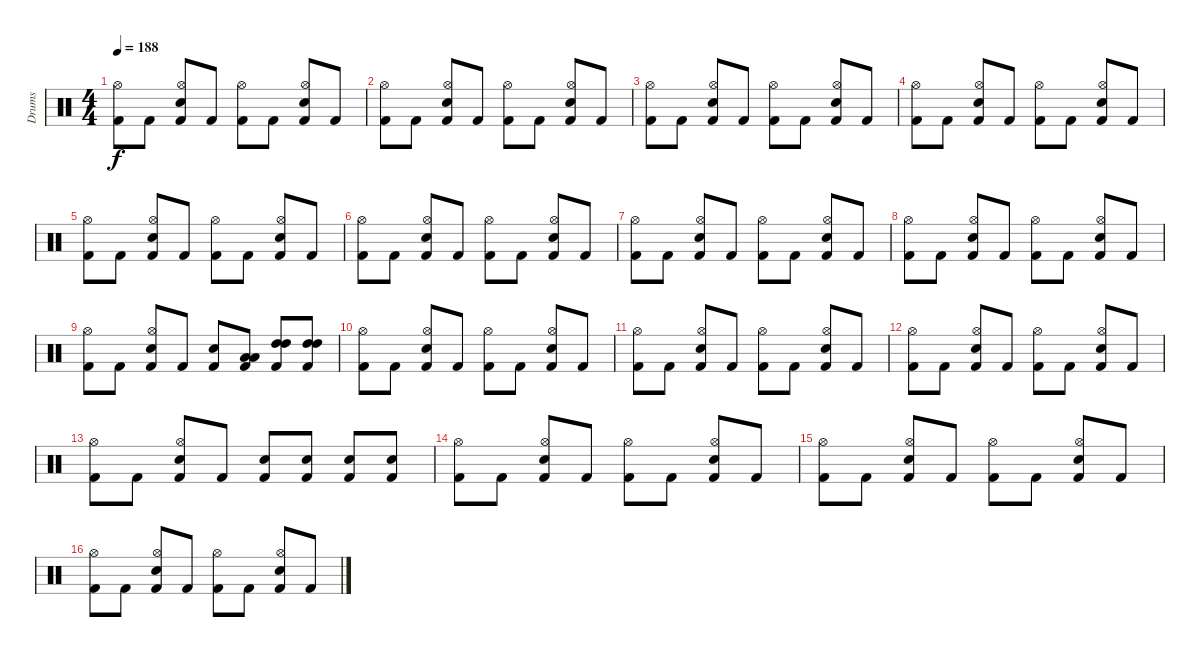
\track ("Drums" "Drums") {instrument percussion}
\staff {score}
\articulation defaults
\ts (4 4)
\tempo 188
\clef neutral
\ks c
("Kick (hit) 2" "Hi-Hat (open)").8{dy f} "Kick (hit) 2".8 ("Kick (hit) 2" "Snare (hit) 2" "Hi-Hat (open)").8 "Kick (hit) 2".8 ("Kick (hit) 2" "Hi-Hat (open)").8 "Kick (hit) 2".8 ("Kick (hit) 2" "Snare (hit) 2" "Hi-Hat (open)").8 "Kick (hit) 2".8 |
("Kick (hit) 2" "Hi-Hat (open)").8 "Kick (hit) 2".8 ("Kick (hit) 2" "Snare (hit) 2" "Hi-Hat (open)").8 "Kick (hit) 2".8 ("Kick (hit) 2" "Hi-Hat (open)").8 "Kick (hit) 2".8 ("Kick (hit) 2" "Snare (hit) 2" "Hi-Hat (open)").8 "Kick (hit) 2".8 |
("Kick (hit) 2" "Hi-Hat (open)").8 "Kick (hit) 2".8 ("Kick (hit) 2" "Snare (hit) 2" "Hi-Hat (open)").8 "Kick (hit) 2".8 ("Kick (hit) 2" "Hi-Hat (open)").8 "Kick (hit) 2".8 ("Kick (hit) 2" "Snare (hit) 2" "Hi-Hat (open)").8 "Kick (hit) 2".8 |
("Kick (hit) 2" "Hi-Hat (open)").8 "Kick (hit) 2".8 ("Kick (hit) 2" "Snare (hit) 2" "Hi-Hat (open)").8 "Kick (hit) 2".8 ("Kick (hit) 2" "Hi-Hat (open)").8 "Kick (hit) 2".8 ("Kick (hit) 2" "Snare (hit) 2" "Hi-Hat (open)").8 "Kick (hit) 2".8 |
("Kick (hit) 2" "Hi-Hat (open)").8 "Kick (hit) 2".8 ("Kick (hit) 2" "Snare (hit) 2" "Hi-Hat (open)").8 "Kick (hit) 2".8 ("Kick (hit) 2" "Hi-Hat (open)").8 "Kick (hit) 2".8 ("Kick (hit) 2" "Snare (hit) 2" "Hi-Hat (open)").8 "Kick (hit) 2".8 |
("Kick (hit) 2" "Hi-Hat (open)").8 "Kick (hit) 2".8 ("Kick (hit) 2" "Snare (hit) 2" "Hi-Hat (open)").8 "Kick (hit) 2".8 ("Kick (hit) 2" "Hi-Hat (open)").8 "Kick (hit) 2".8 ("Kick (hit) 2" "Snare (hit) 2" "Hi-Hat (open)").8 "Kick (hit) 2".8 |
("Kick (hit) 2" "Hi-Hat (open)").8 "Kick (hit) 2".8 ("Kick (hit) 2" "Snare (hit) 2" "Hi-Hat (open)").8 "Kick (hit) 2".8 ("Kick (hit) 2" "Hi-Hat (open)").8 "Kick (hit) 2".8 ("Kick (hit) 2" "Snare (hit) 2" "Hi-Hat (open)").8 "Kick (hit) 2".8 |
("Kick (hit) 2" "Hi-Hat (open)").8 "Kick (hit) 2".8 ("Kick (hit) 2" "Snare (hit) 2" "Hi-Hat (open)").8 "Kick (hit) 2".8 ("Kick (hit) 2" "Hi-Hat (open)").8 "Kick (hit) 2".8 ("Kick (hit) 2" "Snare (hit) 2" "Hi-Hat (open)").8 "Kick (hit) 2".8 |
("Kick (hit) 2" "Hi-Hat (open)").8 "Kick (hit) 2".8 ("Kick (hit) 2" "Snare (hit) 2" "Hi-Hat (open)").8 "Kick (hit) 2".8 ("Kick (hit) 2" "Snare (hit) 2").8 ("Kick (hit) 2" "Low Tom (hit)" "Low Tom (hit)").8 ("Kick (hit) 2" "High Tom (hit)" "High Tom (hit)").8 ("Kick (hit) 2" "High Tom (hit)" "High Tom (hit)").8 |
("Kick (hit) 2" "Hi-Hat (open)").8 "Kick (hit) 2".8 ("Kick (hit) 2" "Snare (hit) 2" "Hi-Hat (open)").8 "Kick (hit) 2".8 ("Kick (hit) 2" "Hi-Hat (open)").8 "Kick (hit) 2".8 ("Kick (hit) 2" "Snare (hit) 2" "Hi-Hat (open)").8 "Kick (hit) 2".8 |
("Kick (hit) 2" "Hi-Hat (open)").8 "Kick (hit) 2".8 ("Kick (hit) 2" "Snare (hit) 2" "Hi-Hat (open)").8 "Kick (hit) 2".8 ("Kick (hit) 2" "Hi-Hat (open)").8 "Kick (hit) 2".8 ("Kick (hit) 2" "Snare (hit) 2" "Hi-Hat (open)").8 "Kick (hit) 2".8 |
("Kick (hit) 2" "Hi-Hat (open)").8 "Kick (hit) 2".8 ("Kick (hit) 2" "Snare (hit) 2" "Hi-Hat (open)").8 "Kick (hit) 2".8 ("Kick (hit) 2" "Hi-Hat (open)").8 "Kick (hit) 2".8 ("Kick (hit) 2" "Snare (hit) 2" "Hi-Hat (open)").8 "Kick (hit) 2".8 |
("Kick (hit) 2" "Hi-Hat (open)").8 "Kick (hit) 2".8 ("Kick (hit) 2" "Snare (hit) 2" "Hi-Hat (open)").8 "Kick (hit) 2".8 ("Kick (hit) 2" "Snare (hit) 2").8 ("Kick (hit) 2" "Snare (hit) 2").8 ("Kick (hit) 2" "Snare (hit) 2").8 ("Kick (hit) 2" "Snare (hit) 2").8 |
("Kick (hit) 2" "Hi-Hat (open)").8 "Kick (hit) 2".8 ("Kick (hit) 2" "Snare (hit) 2" "Hi-Hat (open)").8 "Kick (hit) 2".8 ("Kick (hit) 2" "Hi-Hat (open)").8 "Kick (hit) 2".8 ("Kick (hit) 2" "Snare (hit) 2" "Hi-Hat (open)").8 "Kick (hit) 2".8 |
("Kick (hit) 2" "Hi-Hat (open)").8 "Kick (hit) 2".8 ("Kick (hit) 2" "Snare (hit) 2" "Hi-Hat (open)").8 "Kick (hit) 2".8 ("Kick (hit) 2" "Hi-Hat (open)").8 "Kick (hit) 2".8 ("Kick (hit) 2" "Snare (hit) 2" "Hi-Hat (open)").8 "Kick (hit) 2".8 |
("Kick (hit) 2" "Hi-Hat (open)").8 "Kick (hit) 2".8 ("Kick (hit) 2" "Snare (hit) 2" "Hi-Hat (open)").8 "Kick (hit) 2".8 ("Kick (hit) 2" "Hi-Hat (open)").8 "Kick (hit) 2".8 ("Kick (hit) 2" "Snare (hit) 2" "Hi-Hat (open)").8 "Kick (hit) 2".8
